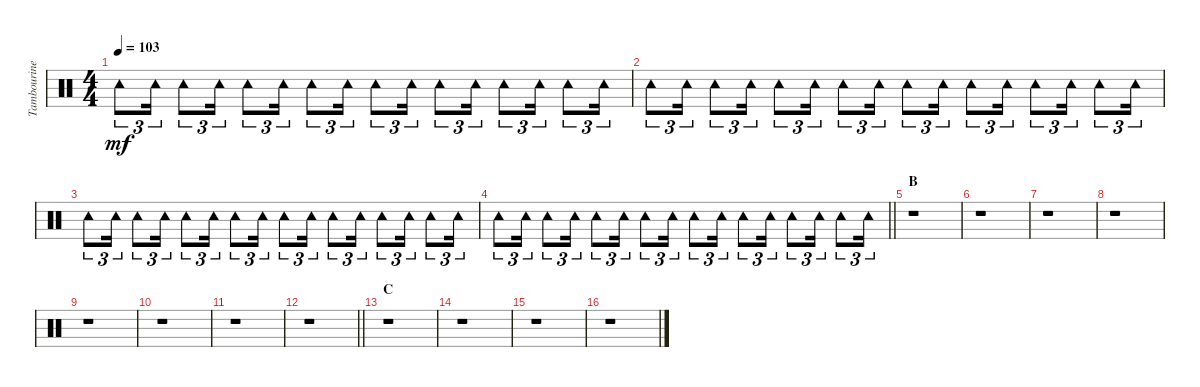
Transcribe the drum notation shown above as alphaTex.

\track ("Tambourine" "Tambourine") {instrument percussion}
\staff {score}
\articulation defaults
\ts (4 4)
\tempo 103
\clef neutral
\ks c "Tambourine (hit)".8{tu (3 2) dy mf} "Tambourine (hit)".16{tu (3 2)} "Tambourine (hit)".8{tu (3 2)} "Tambourine (hit)".16{tu (3 2)} "Tambourine (hit)".8{tu (3 2)} "Tambourine (hit)".16{tu (3 2)} "Tambourine (hit)".8{tu (3 2)} "Tambourine (hit)".16{tu (3 2)} "Tambourine (hit)".8{tu (3 2)} "Tambourine (hit)".16{tu (3 2)} "Tambourine (hit)".8{tu (3 2)} "Tambourine (hit)".16{tu (3 2)} "Tambourine (hit)".8{tu (3 2)} "Tambourine (hit)".16{tu (3 2)} "Tambourine (hit)".8{tu (3 2)} "Tambourine (hit)".16{tu (3 2)}
|
"Tambourine (hit)".8{tu (3 2)} "Tambourine (hit)".16{tu (3 2)} "Tambourine (hit)".8{tu (3 2)} "Tambourine (hit)".16{tu (3 2)} "Tambourine (hit)".8{tu (3 2)} "Tambourine (hit)".16{tu (3 2)} "Tambourine (hit)".8{tu (3 2)} "Tambourine (hit)".16{tu (3 2)} "Tambourine (hit)".8{tu (3 2)} "Tambourine (hit)".16{tu (3 2)} "Tambourine (hit)".8{tu (3 2)} "Tambourine (hit)".16{tu (3 2)} "Tambourine (hit)".8{tu (3 2)} "Tambourine (hit)".16{tu (3 2)} "Tambourine (hit)".8{tu (3 2)} "Tambourine (hit)".16{tu (3 2)} |
"Tambourine (hit)".8{tu (3 2)} "Tambourine (hit)".16{tu (3 2)} "Tambourine (hit)".8{tu (3 2)} "Tambourine (hit)".16{tu (3 2)} "Tambourine (hit)".8{tu (3 2)} "Tambourine (hit)".16{tu (3 2)} "Tambourine (hit)".8{tu (3 2)} "Tambourine (hit)".16{tu (3 2)} "Tambourine (hit)".8{tu (3 2)} "Tambourine (hit)".16{tu (3 2)} "Tambourine (hit)".8{tu (3 2)} "Tambourine (hit)".16{tu (3 2)} "Tambourine (hit)".8{tu (3 2)} "Tambourine (hit)".16{tu (3 2)} "Tambourine (hit)".8{tu (3 2)} "Tambourine (hit)".16{tu (3 2)} |
\barLineRight lightlight "Tambourine (hit)".8{tu (3 2)} "Tambourine (hit)".16{tu (3 2)} "Tambourine (hit)".8{tu (3 2)} "Tambourine (hit)".16{tu (3 2)} "Tambourine (hit)".8{tu (3 2)} "Tambourine (hit)".16{tu (3 2)} "Tambourine (hit)".8{tu (3 2)} "Tambourine (hit)".16{tu (3 2)} "Tambourine (hit)".8{tu (3 2)} "Tambourine (hit)".16{tu (3 2)} "Tambourine (hit)".8{tu (3 2)} "Tambourine (hit)".16{tu (3 2)} "Tambourine (hit)".8{tu (3 2)} "Tambourine (hit)".16{tu (3 2)} "Tambourine (hit)".8{tu (3 2)} "Tambourine (hit)".16{tu (3 2)}
|
\section ("" "B")
r.1 |
r.1 |
r.1 |
r.1 |
r.1 |
r.1 |
r.1 |
\barLineRight lightlight
r.1 |
\section ("" "C")
r.1 |
r.1 |
r.1 |
r.1
